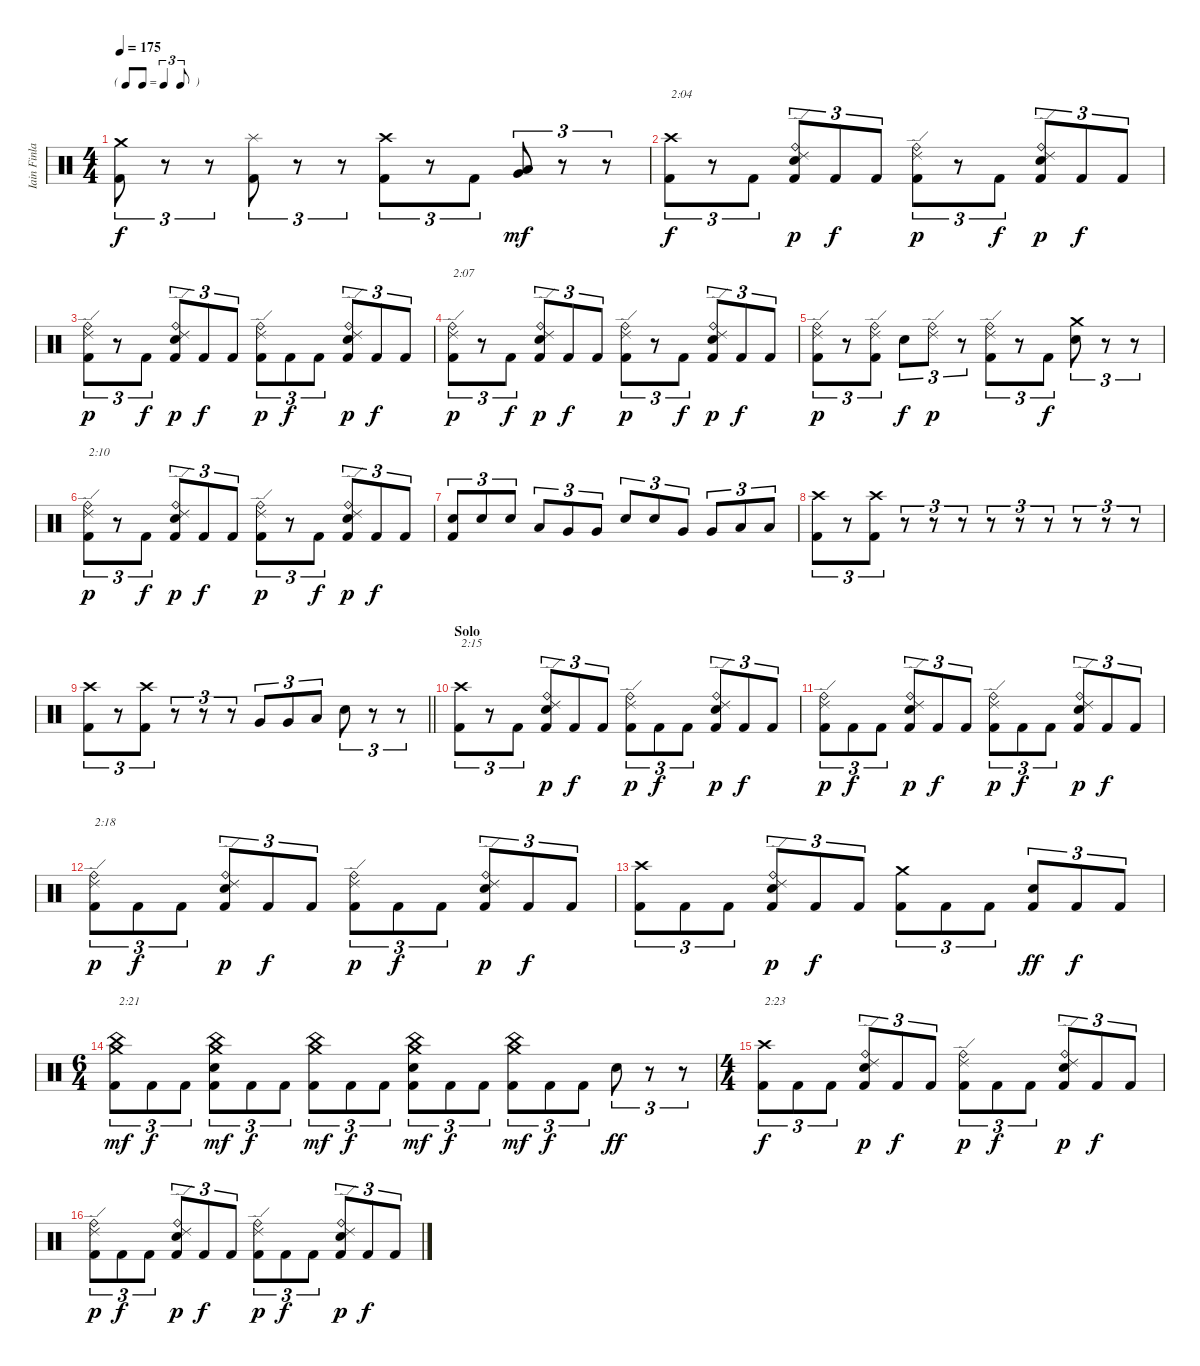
\track ("Iain Finlay" "Iain Finla") {instrument percussion}
\staff {score}
\articulation defaults
\ts (4 4)
\tf triplet8th
\tempo 175
\clef neutral
\ks c
("Crash medium (hit)" "Kick (hit) 2").8{tu (3 2) dy f} r.8{tu (3 2)} r.8{tu (3 2)} ("Splash (hit)" "Kick (hit) 2").8{tu (3 2)} r.8{tu (3 2)} r.8{tu (3 2)} ("Crash high (hit)" "Kick (hit) 2").8{tu (3 2)} r.8{tu (3 2)} "Kick (hit) 2".8{tu (3 2)} ("Very Low Tom (hit)" "Low Floor Tom (hit)").8{tu (3 2) dy mf} r.8{tu (3 2)} r.8{tu (3 2)} |
("Crash high (hit)" "Kick (hit) 2").8{tu (3 2) txt "2:04" dy f} r.8{tu (3 2)} "Kick (hit) 2".8{tu (3 2)} ("Ride (edge) 2" "Ride (bell)" "Electric Snare (hit)" "Kick (hit) 2").8{tu (3 2) dy p} "Kick (hit) 2".8{tu (3 2) dy f} "Kick (hit) 2".8{tu (3 2)} ("Ride (edge) 2" "Ride (bell)" "Kick (hit) 2").8{tu (3 2) dy p} r.8{tu (3 2)} "Kick (hit) 2".8{tu (3 2) dy f} ("Ride (edge) 2" "Ride (bell)" "Electric Snare (hit)" "Kick (hit) 2").8{tu (3 2) dy p} "Kick (hit) 2".8{tu (3 2) dy f} "Kick (hit) 2".8{tu (3 2)} |
("Ride (edge) 2" "Ride (bell)" "Kick (hit) 2").8{tu (3 2) dy p} r.8{tu (3 2)} "Kick (hit) 2".8{tu (3 2) dy f} ("Ride (edge) 2" "Ride (bell)" "Electric Snare (hit)" "Kick (hit) 2").8{tu (3 2) dy p} "Kick (hit) 2".8{tu (3 2) dy f} "Kick (hit) 2".8{tu (3 2)} ("Ride (edge) 2" "Ride (bell)" "Kick (hit) 2").8{tu (3 2) dy p} "Kick (hit) 2".8{tu (3 2) dy f} "Kick (hit) 2".8{tu (3 2)} ("Ride (edge) 2" "Ride (bell)" "Electric Snare (hit)" "Kick (hit) 2").8{tu (3 2) dy p} "Kick (hit) 2".8{tu (3 2) dy f} "Kick (hit) 2".8{tu (3 2)} |
("Ride (edge) 2" "Ride (bell)" "Kick (hit) 2").8{tu (3 2) txt "2:07" dy p} r.8{tu (3 2)} "Kick (hit) 2".8{tu (3 2) dy f} ("Ride (edge) 2" "Ride (bell)" "Electric Snare (hit)" "Kick (hit) 2").8{tu (3 2) dy p} "Kick (hit) 2".8{tu (3 2) dy f} "Kick (hit) 2".8{tu (3 2)} ("Ride (edge) 2" "Ride (bell)" "Kick (hit) 2").8{tu (3 2) dy p} r.8{tu (3 2)} "Kick (hit) 2".8{tu (3 2) dy f} ("Ride (edge) 2" "Ride (bell)" "Electric Snare (hit)" "Kick (hit) 2").8{tu (3 2) dy p} "Kick (hit) 2".8{tu (3 2) dy f} "Kick (hit) 2".8{tu (3 2)} |
("Ride (edge) 2" "Ride (bell)" "Kick (hit) 2").8{tu (3 2) dy p} r.8{tu (3 2)} ("Ride (edge) 2" "Ride (bell)" "Kick (hit) 2").8{tu (3 2)} "Electric Snare (hit)".8{tu (3 2) dy f} ("Ride (edge) 2" "Ride (bell)").8{tu (3 2) dy p} r.8{tu (3 2)} ("Ride (edge) 2" "Ride (bell)" "Kick (hit) 2").8{tu (3 2)} r.8{tu (3 2)} "Kick (hit) 2".8{tu (3 2) dy f} ("Crash medium (hit)" "Electric Snare (hit)").8{tu (3 2)} r.8{tu (3 2)} r.8{tu (3 2)} |
("Ride (edge) 2" "Ride (bell)" "Kick (hit) 2").8{tu (3 2) txt "2:10" dy p} r.8{tu (3 2)} "Kick (hit) 2".8{tu (3 2) dy f} ("Ride (edge) 2" "Ride (bell)" "Electric Snare (hit)" "Kick (hit) 2").8{tu (3 2) dy p} "Kick (hit) 2".8{tu (3 2) dy f} "Kick (hit) 2".8{tu (3 2)} ("Ride (edge) 2" "Ride (bell)" "Kick (hit) 2").8{tu (3 2) dy p} r.8{tu (3 2)} "Kick (hit) 2".8{tu (3 2) dy f} ("Ride (edge) 2" "Ride (bell)" "Electric Snare (hit)" "Kick (hit) 2").8{tu (3 2) dy p} "Kick (hit) 2".8{tu (3 2) dy f} "Kick (hit) 2".8{tu (3 2)} |
("Electric Snare (hit)" "Kick (hit) 2").8{tu (3 2)} "Electric Snare (hit)".8{tu (3 2)} "Electric Snare (hit)".8{tu (3 2)} "Low Tom (hit)".8{tu (3 2)} "Very Low Tom (hit)".8{tu (3 2)} "Very Low Tom (hit)".8{tu (3 2)} "Electric Snare (hit)".8{tu (3 2)} "Electric Snare (hit)".8{tu (3 2)} "Very Low Tom (hit)".8{tu (3 2)} "Very Low Tom (hit)".8{tu (3 2)} "Low Floor Tom (hit)".8{tu (3 2)} "Low Floor Tom (hit)".8{tu (3 2)} |
("Crash high (hit)" "Kick (hit) 2").8{tu (3 2)} r.8{tu (3 2)} ("Crash high (hit)" "Kick (hit) 2").8{tu (3 2)} r.8{tu (3 2)} r.8{tu (3 2)} r.8{tu (3 2)} r.8{tu (3 2)} r.8{tu (3 2)} r.8{tu (3 2)} r.8{tu (3 2)} r.8{tu (3 2)} r.8{tu (3 2)} |
\barLineRight lightlight
("Crash high (hit)" "Kick (hit) 2").8{tu (3 2)} r.8{tu (3 2)} ("Crash high (hit)" "Kick (hit) 2").8{tu (3 2)} r.8{tu (3 2)} r.8{tu (3 2)} r.8{tu (3 2)} "Very Low Tom (hit)".8{tu (3 2)} "Very Low Tom (hit)".8{tu (3 2)} "Low Floor Tom (hit)".8{tu (3 2)} "Electric Snare (hit)".8{tu (3 2)} r.8{tu (3 2)} r.8{tu (3 2)} |
\section ("" "Solo")
("Crash high (hit)" "Kick (hit) 2").8{tu (3 2) txt "2:15"} r.8{tu (3 2)} "Kick (hit) 2".8{tu (3 2)} ("Ride (edge) 2" "Ride (bell)" "Electric Snare (hit)" "Kick (hit) 2").8{tu (3 2) dy p} "Kick (hit) 2".8{tu (3 2) dy f} "Kick (hit) 2".8{tu (3 2)} ("Ride (edge) 2" "Ride (bell)" "Kick (hit) 2").8{tu (3 2) dy p} "Kick (hit) 2".8{tu (3 2) dy f} "Kick (hit) 2".8{tu (3 2)} ("Ride (edge) 2" "Ride (bell)" "Electric Snare (hit)" "Kick (hit) 2").8{tu (3 2) dy p} "Kick (hit) 2".8{tu (3 2) dy f} "Kick (hit) 2".8{tu (3 2)} |
("Ride (edge) 2" "Ride (bell)" "Kick (hit) 2").8{tu (3 2) dy p} "Kick (hit) 2".8{tu (3 2) dy f} "Kick (hit) 2".8{tu (3 2)} ("Ride (edge) 2" "Ride (bell)" "Electric Snare (hit)" "Kick (hit) 2").8{tu (3 2) dy p} "Kick (hit) 2".8{tu (3 2) dy f} "Kick (hit) 2".8{tu (3 2)} ("Ride (edge) 2" "Ride (bell)" "Kick (hit) 2").8{tu (3 2) dy p} "Kick (hit) 2".8{tu (3 2) dy f} "Kick (hit) 2".8{tu (3 2)} ("Ride (edge) 2" "Ride (bell)" "Electric Snare (hit)" "Kick (hit) 2").8{tu (3 2) dy p} "Kick (hit) 2".8{tu (3 2) dy f} "Kick (hit) 2".8{tu (3 2)} |
("Ride (edge) 2" "Ride (bell)" "Kick (hit) 2").8{tu (3 2) txt "2:18" dy p} "Kick (hit) 2".8{tu (3 2) dy f} "Kick (hit) 2".8{tu (3 2)} ("Ride (edge) 2" "Ride (bell)" "Electric Snare (hit)" "Kick (hit) 2").8{tu (3 2) dy p} "Kick (hit) 2".8{tu (3 2) dy f} "Kick (hit) 2".8{tu (3 2)} ("Ride (edge) 2" "Ride (bell)" "Kick (hit) 2").8{tu (3 2) dy p} "Kick (hit) 2".8{tu (3 2) dy f} "Kick (hit) 2".8{tu (3 2)} ("Ride (edge) 2" "Ride (bell)" "Electric Snare (hit)" "Kick (hit) 2").8{tu (3 2) dy p} "Kick (hit) 2".8{tu (3 2) dy f} "Kick (hit) 2".8{tu (3 2)} |
("Crash high (hit)" "Kick (hit) 2").8{tu (3 2)} "Kick (hit) 2".8{tu (3 2)} "Kick (hit) 2".8{tu (3 2)} ("Ride (edge) 2" "Ride (bell)" "Electric Snare (hit)" "Kick (hit) 2").8{tu (3 2) dy p} "Kick (hit) 2".8{tu (3 2) dy f} "Kick (hit) 2".8{tu (3 2)} ("Crash medium (hit)" "Kick (hit) 2").8{tu (3 2)} "Kick (hit) 2".8{tu (3 2)} "Kick (hit) 2".8{tu (3 2)} ("Electric Snare (hit)" "Kick (hit) 2").8{tu (3 2) dy ff} "Kick (hit) 2".8{tu (3 2) dy f} "Kick (hit) 2".8{tu (3 2)} |
\ts (6 4)
("China (hit)" "Crash medium (hit)" "Kick (hit) 2").8{tu (3 2) txt "2:21" dy mf} "Kick (hit) 2".8{tu (3 2) dy f} "Kick (hit) 2".8{tu (3 2)} ("China (hit)" "Crash medium (hit)" "Electric Snare (hit)" "Kick (hit) 2").8{tu (3 2) dy mf} "Kick (hit) 2".8{tu (3 2) dy f} "Kick (hit) 2".8{tu (3 2)} ("China (hit)" "Crash medium (hit)" "Kick (hit) 2").8{tu (3 2) dy mf} "Kick (hit) 2".8{tu (3 2) dy f} "Kick (hit) 2".8{tu (3 2)} ("China (hit)" "Crash medium (hit)" "Electric Snare (hit)" "Kick (hit) 2").8{tu (3 2) dy mf} "Kick (hit) 2".8{tu (3 2) dy f} "Kick (hit) 2".8{tu (3 2)} ("China (hit)" "Crash medium (hit)" "Kick (hit) 2").8{tu (3 2) dy mf} "Kick (hit) 2".8{tu (3 2) dy f} "Kick (hit) 2".8{tu (3 2)} "Electric Snare (hit)".8{tu (3 2) dy ff} r.8{tu (3 2)} r.8{tu (3 2)} |
\ts (4 4)
("Crash high (hit)" "Kick (hit) 2").8{tu (3 2) txt "2:23" dy f} "Kick (hit) 2".8{tu (3 2)} "Kick (hit) 2".8{tu (3 2)} ("Ride (edge) 2" "Ride (bell)" "Electric Snare (hit)" "Kick (hit) 2").8{tu (3 2) dy p} "Kick (hit) 2".8{tu (3 2) dy f} "Kick (hit) 2".8{tu (3 2)} ("Ride (edge) 2" "Ride (bell)" "Kick (hit) 2").8{tu (3 2) dy p} "Kick (hit) 2".8{tu (3 2) dy f} "Kick (hit) 2".8{tu (3 2)} ("Ride (edge) 2" "Ride (bell)" "Electric Snare (hit)" "Kick (hit) 2").8{tu (3 2) dy p} "Kick (hit) 2".8{tu (3 2) dy f} "Kick (hit) 2".8{tu (3 2)} |
("Ride (edge) 2" "Ride (bell)" "Kick (hit) 2").8{tu (3 2) dy p} "Kick (hit) 2".8{tu (3 2) dy f} "Kick (hit) 2".8{tu (3 2)} ("Ride (edge) 2" "Ride (bell)" "Electric Snare (hit)" "Kick (hit) 2").8{tu (3 2) dy p} "Kick (hit) 2".8{tu (3 2) dy f} "Kick (hit) 2".8{tu (3 2)} ("Ride (edge) 2" "Ride (bell)" "Kick (hit) 2").8{tu (3 2) dy p} "Kick (hit) 2".8{tu (3 2) dy f} "Kick (hit) 2".8{tu (3 2)} ("Ride (edge) 2" "Ride (bell)" "Electric Snare (hit)" "Kick (hit) 2").8{tu (3 2) dy p} "Kick (hit) 2".8{tu (3 2) dy f} "Kick (hit) 2".8{tu (3 2)}
